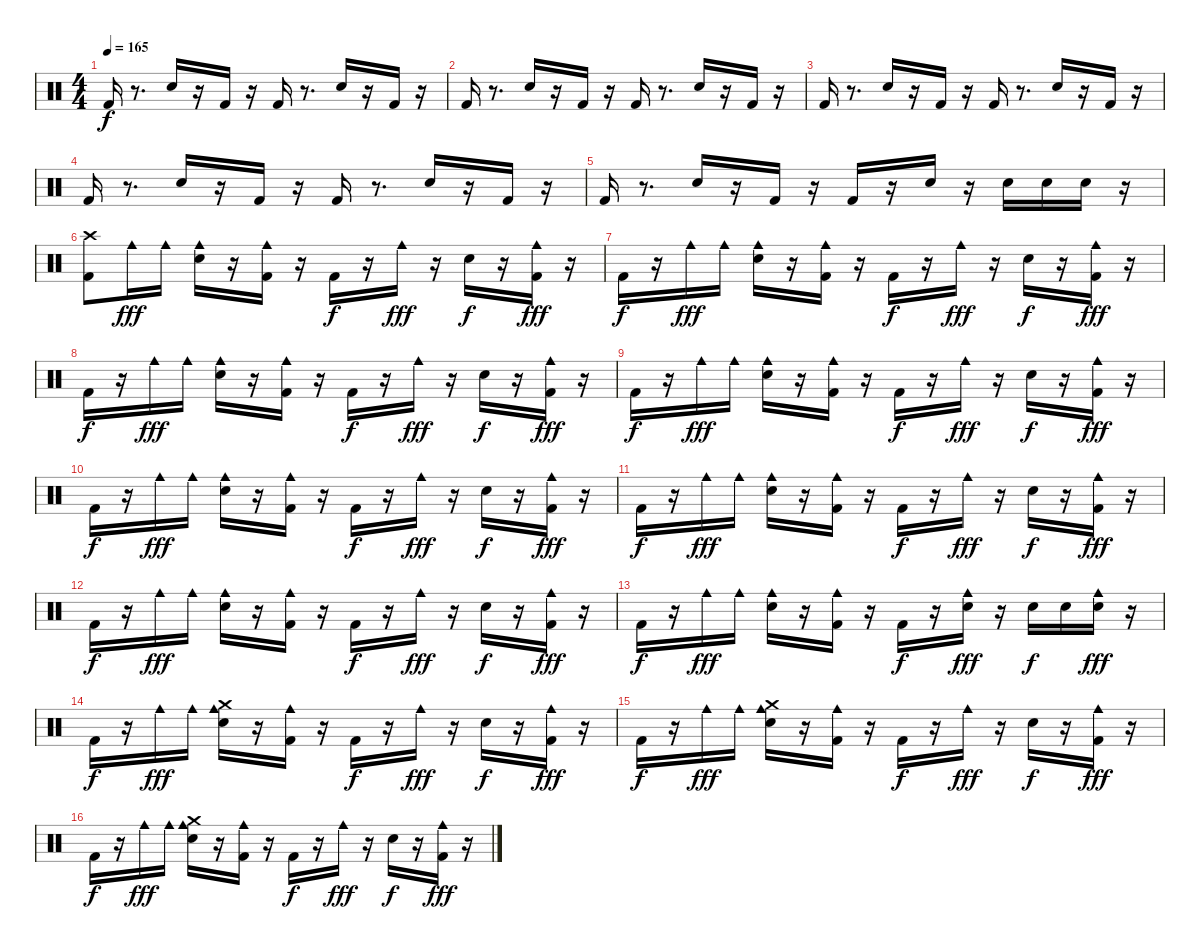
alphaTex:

\track "" {instrument percussion}
\staff {score}
\articulation defaults
\ts (4 4)
\tempo 165
\clef neutral
\ks c "Kick (hit) 2".16{dy f}
r.8{d} "Snare (hit) 2".16 r.16 "Kick (hit) 2".16 r.16 "Kick (hit) 2".16 r.8{d} "Snare (hit) 2".16 r.16 "Kick (hit) 2".16 r.16 |
"Kick (hit) 2".16 r.8{d} "Snare (hit) 2".16 r.16 "Kick (hit) 2".16 r.16 "Kick (hit) 2".16 r.8{d} "Snare (hit) 2".16 r.16 "Kick (hit) 2".16 r.16 |
"Kick (hit) 2".16 r.8{d} "Snare (hit) 2".16 r.16 "Kick (hit) 2".16 r.16 "Kick (hit) 2".16 r.8{d} "Snare (hit) 2".16 r.16 "Kick (hit) 2".16 r.16 |
"Kick (hit) 2".16 r.8{d} "Snare (hit) 2".16 r.16 "Kick (hit) 2".16 r.16 "Kick (hit) 2".16 r.8{d} "Snare (hit) 2".16 r.16 "Kick (hit) 2".16 r.16 |
"Kick (hit) 2".16 r.8{d} "Snare (hit) 2".16 r.16 "Kick (hit) 2".16 r.16 "Kick (hit) 2".16 r.16 "Snare (hit) 2".16 r.16 "Snare (hit) 2".16 "Snare (hit) 2".16 "Snare (hit) 2".16 r.16 |
("Crash high (hit)" "Kick (hit) 2").8 "Cowbell medium (hit)".16{dy fff} "Cowbell medium (hit)".16 ("Snare (hit) 2" "Cowbell medium (hit)").16 r.16 ("Kick (hit) 2" "Cowbell medium (hit)").16 r.16 "Kick (hit) 2".16{dy f} r.16 "Cowbell medium (hit)".16{dy fff} r.16 "Snare (hit) 2".16{dy f} r.16 ("Kick (hit) 2" "Cowbell medium (hit)").16{dy fff} r.16 |
"Kick (hit) 2".16{dy f} r.16 "Cowbell medium (hit)".16{dy fff} "Cowbell medium (hit)".16 ("Snare (hit) 2" "Cowbell medium (hit)").16 r.16 ("Kick (hit) 2" "Cowbell medium (hit)").16 r.16 "Kick (hit) 2".16{dy f} r.16 "Cowbell medium (hit)".16{dy fff} r.16 "Snare (hit) 2".16{dy f} r.16 ("Kick (hit) 2" "Cowbell medium (hit)").16{dy fff} r.16 |
"Kick (hit) 2".16{dy f} r.16 "Cowbell medium (hit)".16{dy fff} "Cowbell medium (hit)".16 ("Snare (hit) 2" "Cowbell medium (hit)").16 r.16 ("Kick (hit) 2" "Cowbell medium (hit)").16 r.16 "Kick (hit) 2".16{dy f} r.16 "Cowbell medium (hit)".16{dy fff} r.16 "Snare (hit) 2".16{dy f} r.16 ("Kick (hit) 2" "Cowbell medium (hit)").16{dy fff} r.16 |
"Kick (hit) 2".16{dy f} r.16 "Cowbell medium (hit)".16{dy fff} "Cowbell medium (hit)".16 ("Snare (hit) 2" "Cowbell medium (hit)").16 r.16 ("Kick (hit) 2" "Cowbell medium (hit)").16 r.16 "Kick (hit) 2".16{dy f} r.16 "Cowbell medium (hit)".16{dy fff} r.16 "Snare (hit) 2".16{dy f} r.16 ("Kick (hit) 2" "Cowbell medium (hit)").16{dy fff} r.16 |
"Kick (hit) 2".16{dy f} r.16 "Cowbell medium (hit)".16{dy fff} "Cowbell medium (hit)".16 ("Snare (hit) 2" "Cowbell medium (hit)").16 r.16 ("Kick (hit) 2" "Cowbell medium (hit)").16 r.16 "Kick (hit) 2".16{dy f} r.16 "Cowbell medium (hit)".16{dy fff} r.16 "Snare (hit) 2".16{dy f} r.16 ("Kick (hit) 2" "Cowbell medium (hit)").16{dy fff} r.16 |
"Kick (hit) 2".16{dy f} r.16 "Cowbell medium (hit)".16{dy fff} "Cowbell medium (hit)".16 ("Snare (hit) 2" "Cowbell medium (hit)").16 r.16 ("Kick (hit) 2" "Cowbell medium (hit)").16 r.16 "Kick (hit) 2".16{dy f} r.16 "Cowbell medium (hit)".16{dy fff} r.16 "Snare (hit) 2".16{dy f} r.16 ("Kick (hit) 2" "Cowbell medium (hit)").16{dy fff} r.16 |
"Kick (hit) 2".16{dy f} r.16 "Cowbell medium (hit)".16{dy fff} "Cowbell medium (hit)".16 ("Snare (hit) 2" "Cowbell medium (hit)").16 r.16 ("Kick (hit) 2" "Cowbell medium (hit)").16 r.16 "Kick (hit) 2".16{dy f} r.16 "Cowbell medium (hit)".16{dy fff} r.16 "Snare (hit) 2".16{dy f} r.16 ("Kick (hit) 2" "Cowbell medium (hit)").16{dy fff} r.16 |
"Kick (hit) 2".16{dy f} r.16 "Cowbell medium (hit)".16{dy fff} "Cowbell medium (hit)".16 ("Snare (hit) 2" "Cowbell medium (hit)").16 r.16 ("Kick (hit) 2" "Cowbell medium (hit)").16 r.16 "Kick (hit) 2".16{dy f} r.16 ("Snare (hit) 2" "Cowbell medium (hit)").16{dy fff} r.16 "Snare (hit) 2".16{dy f} "Snare (hit) 2".16 ("Snare (hit) 2" "Cowbell medium (hit)").16{dy fff} r.16 |
"Kick (hit) 2".16{dy f} r.16 "Cowbell medium (hit)".16{dy fff} "Cowbell medium (hit)".16 ("Crash medium (hit)" "Snare (hit) 2" "Cowbell medium (hit)").16 r.16 ("Kick (hit) 2" "Cowbell medium (hit)").16 r.16 "Kick (hit) 2".16{dy f} r.16 "Cowbell medium (hit)".16{dy fff} r.16 "Snare (hit) 2".16{dy f} r.16 ("Kick (hit) 2" "Cowbell medium (hit)").16{dy fff} r.16 |
"Kick (hit) 2".16{dy f} r.16 "Cowbell medium (hit)".16{dy fff} "Cowbell medium (hit)".16 ("Crash medium (hit)" "Snare (hit) 2" "Cowbell medium (hit)").16 r.16 ("Kick (hit) 2" "Cowbell medium (hit)").16 r.16 "Kick (hit) 2".16{dy f} r.16 "Cowbell medium (hit)".16{dy fff} r.16 "Snare (hit) 2".16{dy f} r.16 ("Kick (hit) 2" "Cowbell medium (hit)").16{dy fff} r.16 |
"Kick (hit) 2".16{dy f} r.16 "Cowbell medium (hit)".16{dy fff} "Cowbell medium (hit)".16 ("Crash medium (hit)" "Snare (hit) 2" "Cowbell medium (hit)").16 r.16 ("Kick (hit) 2" "Cowbell medium (hit)").16 r.16 "Kick (hit) 2".16{dy f} r.16 "Cowbell medium (hit)".16{dy fff} r.16 "Snare (hit) 2".16{dy f} r.16 ("Kick (hit) 2" "Cowbell medium (hit)").16{dy fff} r.16
